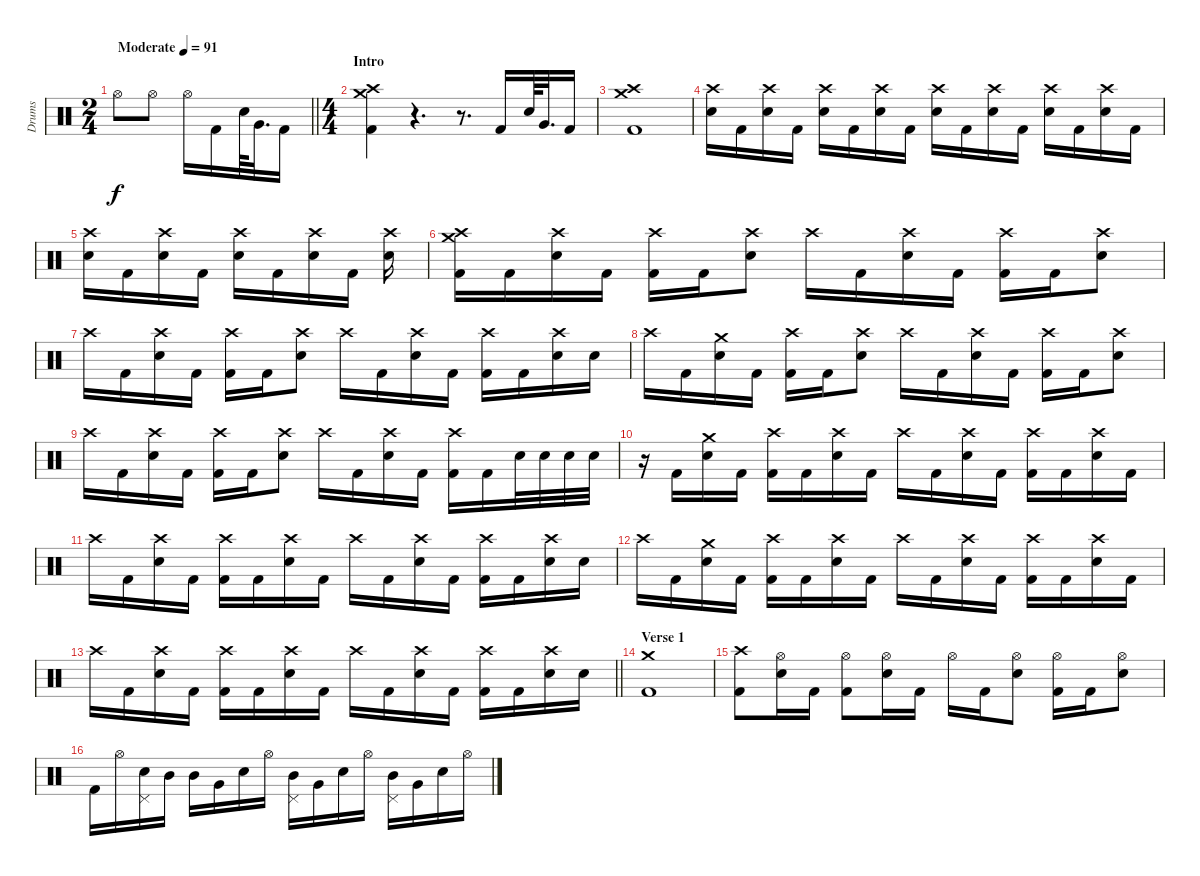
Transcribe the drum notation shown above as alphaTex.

\track ("Drums" "Drums") {instrument percussion bank 34}
\staff {score}
\articulation defaults
\ts (2 4)
\tempo (91 "Moderate")
\clef neutral
\barLineRight lightlight
\ks c "Hi-Hat (open)".8{dy f} "Hi-Hat (open)".8 "Hi-Hat (open)".16 "Kick (hit) 2".16 "Electric Snare (hit)".64 "Very Low Tom (hit)".32{d} "Kick (hit) 2".16
|
\ts (4 4)
\section ("" "Intro")
("Crash medium (hit)" "Crash high (hit)" "Kick (hit) 2").4 r.4{d} r.8{d} "Kick (hit) 2".16 "Electric Snare (hit)".64 "Very Low Tom (hit)".32{d} "Kick (hit) 2".16 |
("Crash medium (hit)" "Crash high (hit)" "Kick (hit) 2").1 |
("Crash high (hit)" "Electric Snare (hit)").16 "Kick (hit) 2".16 ("Crash high (hit)" "Electric Snare (hit)").16 "Kick (hit) 2".16 ("Crash high (hit)" "Electric Snare (hit)").16 "Kick (hit) 2".16 ("Crash high (hit)" "Electric Snare (hit)").16 "Kick (hit) 2".16 ("Crash high (hit)" "Electric Snare (hit)").16 "Kick (hit) 2".16 ("Crash high (hit)" "Electric Snare (hit)").16 "Kick (hit) 2".16 ("Crash high (hit)" "Electric Snare (hit)").16 "Kick (hit) 2".16 ("Crash high (hit)" "Electric Snare (hit)").16 "Kick (hit) 2".16 |
("Crash high (hit)" "Electric Snare (hit)").16 "Kick (hit) 2".16 ("Crash high (hit)" "Electric Snare (hit)").16 "Kick (hit) 2".16 ("Crash high (hit)" "Electric Snare (hit)").16 "Kick (hit) 2".16 ("Crash high (hit)" "Electric Snare (hit)").16 "Kick (hit) 2".16 ("Crash high (hit)" "Electric Snare (hit)").16 |
("Crash medium (hit)" "Crash high (hit)" "Kick (hit) 2").16 "Kick (hit) 2".16 ("Crash high (hit)" "Electric Snare (hit)").16 "Kick (hit) 2".16 ("Crash high (hit)" "Kick (hit) 2").16 "Kick (hit) 2".16 ("Crash high (hit)" "Electric Snare (hit)").8 "Crash high (hit)".16 "Kick (hit) 2".16 ("Crash high (hit)" "Electric Snare (hit)").16 "Kick (hit) 2".16 ("Crash high (hit)" "Kick (hit) 2").16 "Kick (hit) 2".16 ("Crash high (hit)" "Electric Snare (hit)").8 |
"Crash high (hit)".16 "Kick (hit) 2".16 ("Crash high (hit)" "Electric Snare (hit)").16 "Kick (hit) 2".16 ("Crash high (hit)" "Kick (hit) 2").16 "Kick (hit) 2".16 ("Crash high (hit)" "Electric Snare (hit)").8 "Crash high (hit)".16 "Kick (hit) 2".16 ("Crash high (hit)" "Electric Snare (hit)").16 "Kick (hit) 2".16 ("Crash high (hit)" "Kick (hit) 2").16 "Kick (hit) 2".16 ("Crash high (hit)" "Electric Snare (hit)").16 "Electric Snare (hit)".16 |
"Crash high (hit)".16 "Kick (hit) 2".16 ("Crash medium (hit)" "Electric Snare (hit)").16 "Kick (hit) 2".16 ("Crash high (hit)" "Kick (hit) 2").16 "Kick (hit) 2".16 ("Crash high (hit)" "Electric Snare (hit)").8 "Crash high (hit)".16 "Kick (hit) 2".16 ("Crash high (hit)" "Electric Snare (hit)").16 "Kick (hit) 2".16 ("Crash high (hit)" "Kick (hit) 2").16 "Kick (hit) 2".16 ("Crash high (hit)" "Electric Snare (hit)").8 |
"Crash high (hit)".16 "Kick (hit) 2".16 ("Crash high (hit)" "Electric Snare (hit)").16 "Kick (hit) 2".16 ("Crash high (hit)" "Kick (hit) 2").16 "Kick (hit) 2".16 ("Crash high (hit)" "Electric Snare (hit)").8 "Crash high (hit)".16 "Kick (hit) 2".16 ("Crash high (hit)" "Electric Snare (hit)").16 "Kick (hit) 2".16 ("Crash high (hit)" "Kick (hit) 2").16 "Kick (hit) 2".16 "Electric Snare (hit)".32 "Electric Snare (hit)".32 "Electric Snare (hit)".32 "Electric Snare (hit)".32 |
r.16 "Kick (hit) 2".16 ("Crash medium (hit)" "Electric Snare (hit)").16 "Kick (hit) 2".16 ("Crash high (hit)" "Kick (hit) 2").16 "Kick (hit) 2".16 ("Crash high (hit)" "Electric Snare (hit)").16 "Kick (hit) 2".16 "Crash high (hit)".16 "Kick (hit) 2".16 ("Crash high (hit)" "Electric Snare (hit)").16 "Kick (hit) 2".16 ("Crash high (hit)" "Kick (hit) 2").16 "Kick (hit) 2".16 ("Crash high (hit)" "Electric Snare (hit)").16 "Kick (hit) 2".16 |
"Crash high (hit)".16 "Kick (hit) 2".16 ("Crash high (hit)" "Electric Snare (hit)").16 "Kick (hit) 2".16 ("Crash high (hit)" "Kick (hit) 2").16 "Kick (hit) 2".16 ("Crash high (hit)" "Electric Snare (hit)").16 "Kick (hit) 2".16 "Crash high (hit)".16 "Kick (hit) 2".16 ("Crash high (hit)" "Electric Snare (hit)").16 "Kick (hit) 2".16 ("Crash high (hit)" "Kick (hit) 2").16 "Kick (hit) 2".16 ("Crash high (hit)" "Electric Snare (hit)").16 "Electric Snare (hit)".16 |
"Crash high (hit)".16 "Kick (hit) 2".16 ("Crash medium (hit)" "Electric Snare (hit)").16 "Kick (hit) 2".16 ("Crash high (hit)" "Kick (hit) 2").16 "Kick (hit) 2".16 ("Crash high (hit)" "Electric Snare (hit)").16 "Kick (hit) 2".16 "Crash high (hit)".16 "Kick (hit) 2".16 ("Crash high (hit)" "Electric Snare (hit)").16 "Kick (hit) 2".16 ("Crash high (hit)" "Kick (hit) 2").16 "Kick (hit) 2".16 ("Crash high (hit)" "Electric Snare (hit)").16 "Kick (hit) 2".16 |
\barLineRight lightlight "Crash high (hit)".16 "Kick (hit) 2".16
("Crash high (hit)" "Electric Snare (hit)").16 "Kick (hit) 2".16 ("Crash high (hit)" "Kick (hit) 2").16 "Kick (hit) 2".16 ("Crash high (hit)" "Electric Snare (hit)").16 "Kick (hit) 2".16 "Crash high (hit)".16 "Kick (hit) 2".16 ("Crash high (hit)" "Electric Snare (hit)").16 "Kick (hit) 2".16 ("Crash high (hit)" "Kick (hit) 2").16 "Kick (hit) 2".16 ("Crash high (hit)" "Electric Snare (hit)").16 "Electric Snare (hit)".16 |
\section ("" "Verse 1")
("Crash medium (hit)" "Kick (hit) 2").1 |
("Crash high (hit)" "Kick (hit) 2").8 ("Hi-Hat (open)" "Electric Snare (hit)").16 "Kick (hit) 2".16 ("Hi-Hat (open)" "Kick (hit) 2").8 ("Hi-Hat (open)" "Electric Snare (hit)").16 "Kick (hit) 2".16 "Hi-Hat (open)".16 "Kick (hit) 2".16 ("Hi-Hat (open)" "Electric Snare (hit)").8 ("Hi-Hat (open)" "Kick (hit) 2").16 "Kick (hit) 2".16 ("Hi-Hat (open)" "Electric Snare (hit)").8 |
"Kick (hit) 2".16 "Hi-Hat (open)".16 ("Pedal Hi-Hat (hit)" "Electric Snare (hit)").16 "Mid Tom (hit)".16 "Mid Tom (hit)".16 "Very Low Tom (hit)".16 "Electric Snare (hit)".16 "Hi-Hat (open)".16 ("Pedal Hi-Hat (hit)" "Mid Tom (hit)").16 "Very Low Tom (hit)".16 "Electric Snare (hit)".16 "Hi-Hat (open)".16 ("Pedal Hi-Hat (hit)" "Mid Tom (hit)").16 "Very Low Tom (hit)".16 "Electric Snare (hit)".16 "Hi-Hat (open)".16
